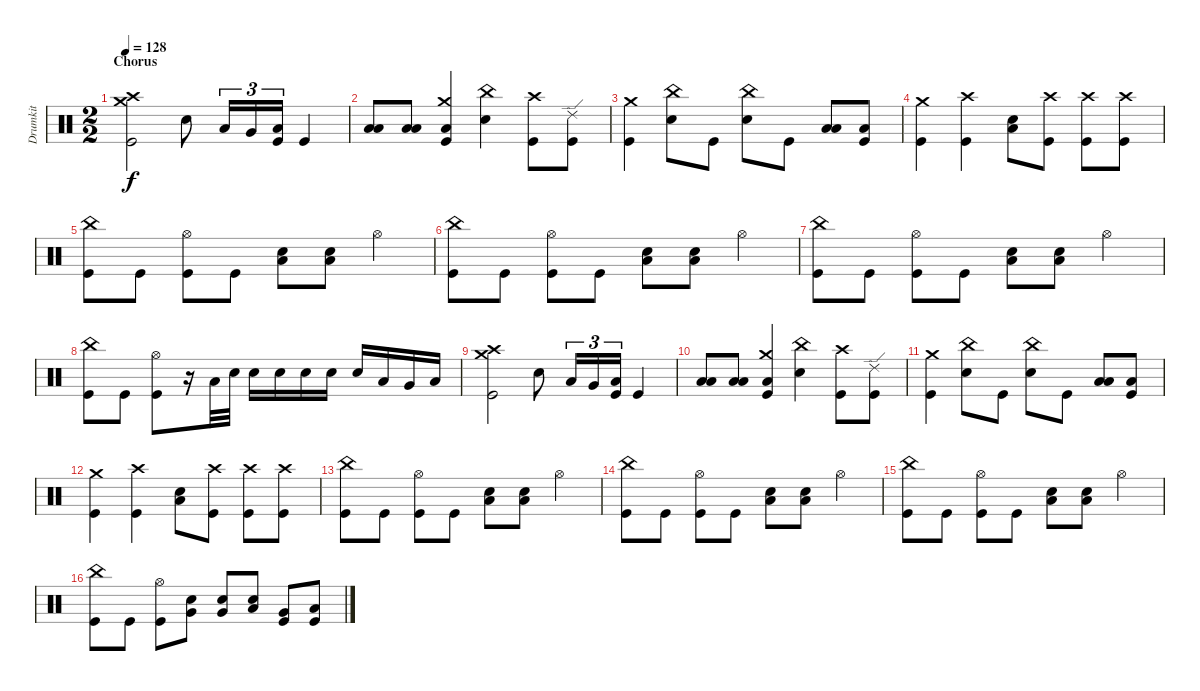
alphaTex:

\track ("Drumkit" "Drumkit") {instrument percussion}
\staff {score}
\articulation defaults
\ts (2 2)
\section ("" "Chorus")
\tempo 128
\clef neutral
\ks c
("Kick (hit)" "Crash medium (hit)" "Crash high (hit)").2{dy f} "Snare (hit) 2".8 "Low Tom (hit)".16{tu (3 2)} "Very Low Tom (hit)".16{tu (3 2)} ("Low Floor Tom (hit)" "Kick (hit)").16{tu (3 2)} "Kick (hit)".4 |
("Low Floor Tom (hit)" "Low Tom (hit)").8 ("Low Floor Tom (hit)" "Low Tom (hit)").8 ("Kick (hit)" "Low Floor Tom (hit)" "Crash medium (hit)").4 ("Snare (hit) 2" "China (hit)").4 ("Kick (hit)" "Crash high (hit)").8 ("Kick (hit)" "Ride (edge) 2").8 |
("Kick (hit)" "Crash medium (hit)").4 ("Snare (hit) 2" "China (hit)").8 "Kick (hit)".8 ("Snare (hit) 2" "China (hit)").8 "Kick (hit)".8 ("Low Tom (hit)" "Low Floor Tom (hit)").8 ("Kick (hit)" "Low Floor Tom (hit)").8 |
("Kick (hit)" "Crash medium (hit)").4 ("Kick (hit)" "Crash high (hit)").4 ("Snare (hit) 2" "Low Floor Tom (hit)").8 ("Kick (hit)" "Crash high (hit)").8 ("Kick (hit)" "Crash high (hit)").8 ("Kick (hit)" "Crash high (hit)").8 |
("Kick (hit)" "China (hit)").8 "Kick (hit)".8 ("Hi-Hat (open)" "Kick (hit)").8 "Kick (hit)".8 ("Snare (hit) 2" "Low Floor Tom (hit)").8 ("Snare (hit) 2" "Low Floor Tom (hit)").8 "Hi-Hat (open)".4 |
("Kick (hit)" "China (hit)").8 "Kick (hit)".8 ("Hi-Hat (open)" "Kick (hit)").8 "Kick (hit)".8 ("Snare (hit) 2" "Low Floor Tom (hit)").8 ("Snare (hit) 2" "Low Floor Tom (hit)").8 "Hi-Hat (open)".4 |
("Kick (hit)" "China (hit)").8 "Kick (hit)".8 ("Hi-Hat (open)" "Kick (hit)").8 "Kick (hit)".8 ("Snare (hit) 2" "Low Floor Tom (hit)").8 ("Snare (hit) 2" "Low Floor Tom (hit)").8 "Hi-Hat (open)".4 |
("Kick (hit)" "China (hit)").8 "Kick (hit)".8 ("Hi-Hat (open)" "Kick (hit)").8 r.16 "Low Tom (hit)".32 "Snare (hit) 2".32 "Snare (hit) 2".16 "Snare (hit) 2".16 "Snare (hit) 2".16 "Snare (hit) 2".16 "Snare (hit) 2".16 "Low Tom (hit)".16 "Very Low Tom (hit)".16 "Low Floor Tom (hit)".16 |
("Kick (hit)" "Crash medium (hit)" "Crash high (hit)").2 "Snare (hit) 2".8 "Low Tom (hit)".16{tu (3 2)} "Very Low Tom (hit)".16{tu (3 2)} ("Low Floor Tom (hit)" "Kick (hit)").16{tu (3 2)} "Kick (hit)".4 |
("Low Floor Tom (hit)" "Low Tom (hit)").8 ("Low Floor Tom (hit)" "Low Tom (hit)").8 ("Kick (hit)" "Low Floor Tom (hit)" "Crash medium (hit)").4 ("Snare (hit) 2" "China (hit)").4 ("Kick (hit)" "Crash high (hit)").8 ("Kick (hit)" "Ride (edge) 2").8 |
("Kick (hit)" "Crash medium (hit)").4 ("Snare (hit) 2" "China (hit)").8 "Kick (hit)".8 ("Snare (hit) 2" "China (hit)").8 "Kick (hit)".8 ("Low Tom (hit)" "Low Floor Tom (hit)").8 ("Kick (hit)" "Low Floor Tom (hit)").8 |
("Kick (hit)" "Crash medium (hit)").4 ("Kick (hit)" "Crash high (hit)").4 ("Snare (hit) 2" "Low Floor Tom (hit)").8 ("Kick (hit)" "Crash high (hit)").8 ("Kick (hit)" "Crash high (hit)").8 ("Kick (hit)" "Crash high (hit)").8 |
("Kick (hit)" "China (hit)").8 "Kick (hit)".8 ("Hi-Hat (open)" "Kick (hit)").8 "Kick (hit)".8 ("Snare (hit) 2" "Low Floor Tom (hit)").8 ("Snare (hit) 2" "Low Floor Tom (hit)").8 "Hi-Hat (open)".4 |
("Kick (hit)" "China (hit)").8 "Kick (hit)".8 ("Hi-Hat (open)" "Kick (hit)").8 "Kick (hit)".8 ("Snare (hit) 2" "Low Floor Tom (hit)").8 ("Snare (hit) 2" "Low Floor Tom (hit)").8 "Hi-Hat (open)".4 |
("Kick (hit)" "China (hit)").8 "Kick (hit)".8 ("Hi-Hat (open)" "Kick (hit)").8 "Kick (hit)".8 ("Snare (hit) 2" "Low Floor Tom (hit)").8 ("Snare (hit) 2" "Low Floor Tom (hit)").8 "Hi-Hat (open)".4 |
("Kick (hit)" "China (hit)").8 "Kick (hit)".8 ("Hi-Hat (open)" "Kick (hit)").8 ("Snare (hit) 2" "Very Low Tom (hit)").8 ("Snare (hit) 2" "Very Low Tom (hit)").8 ("Snare (hit) 2" "Low Tom (hit)").8 ("Kick (hit)" "Very Low Tom (hit)").8 ("Kick (hit)" "Low Floor Tom (hit)").8
